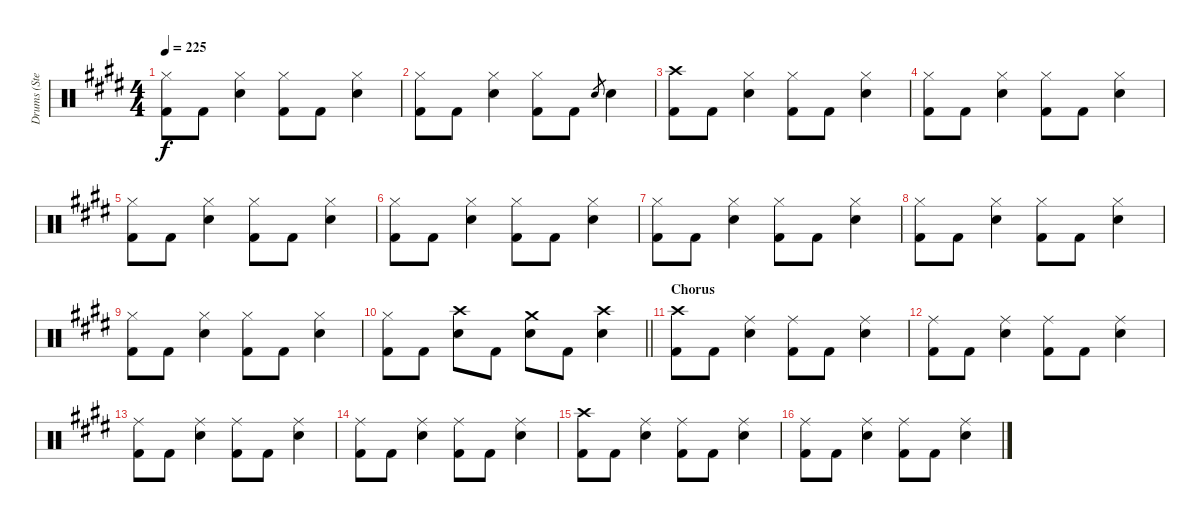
\track ("Drums (Steven)" "Drums (Ste") {instrument percussion}
\staff {score}
\articulation defaults
\ts (4 4)
\tempo 225
\clef neutral
\ks e
("Hi-Hat (closed)" "Kick (hit) 2").8{dy f} "Kick (hit) 2".8 ("Hi-Hat (closed)" "Snare (hit) 2").4 ("Hi-Hat (closed)" "Kick (hit) 2").8 "Kick (hit) 2".8 ("Hi-Hat (closed)" "Snare (hit) 2").4 |
("Hi-Hat (closed)" "Kick (hit) 2").8 "Kick (hit) 2".8 ("Hi-Hat (closed)" "Snare (hit) 2").4 ("Hi-Hat (closed)" "Kick (hit) 2").8 "Kick (hit) 2".8 "Snare (hit) 2".8{gr} "Snare (hit) 2".4 |
("Crash high (hit)" "Kick (hit) 2").8 "Kick (hit) 2".8 ("Hi-Hat (closed)" "Snare (hit) 2").4 ("Hi-Hat (closed)" "Kick (hit) 2").8 "Kick (hit) 2".8 ("Hi-Hat (closed)" "Snare (hit) 2").4 |
("Hi-Hat (closed)" "Kick (hit) 2").8 "Kick (hit) 2".8 ("Hi-Hat (closed)" "Snare (hit) 2").4 ("Hi-Hat (closed)" "Kick (hit) 2").8 "Kick (hit) 2".8 ("Hi-Hat (closed)" "Snare (hit) 2").4 |
("Hi-Hat (closed)" "Kick (hit) 2").8 "Kick (hit) 2".8 ("Hi-Hat (closed)" "Snare (hit) 2").4 ("Hi-Hat (closed)" "Kick (hit) 2").8 "Kick (hit) 2".8 ("Hi-Hat (closed)" "Snare (hit) 2").4 |
("Hi-Hat (closed)" "Kick (hit) 2").8 "Kick (hit) 2".8 ("Hi-Hat (closed)" "Snare (hit) 2").4 ("Hi-Hat (closed)" "Kick (hit) 2").8 "Kick (hit) 2".8 ("Hi-Hat (closed)" "Snare (hit) 2").4 |
("Hi-Hat (closed)" "Kick (hit) 2").8 "Kick (hit) 2".8 ("Hi-Hat (closed)" "Snare (hit) 2").4 ("Hi-Hat (closed)" "Kick (hit) 2").8 "Kick (hit) 2".8 ("Hi-Hat (closed)" "Snare (hit) 2").4 |
("Hi-Hat (closed)" "Kick (hit) 2").8 "Kick (hit) 2".8 ("Hi-Hat (closed)" "Snare (hit) 2").4 ("Hi-Hat (closed)" "Kick (hit) 2").8 "Kick (hit) 2".8 ("Hi-Hat (closed)" "Snare (hit) 2").4 |
("Hi-Hat (closed)" "Kick (hit) 2").8 "Kick (hit) 2".8 ("Hi-Hat (closed)" "Snare (hit) 2").4 ("Hi-Hat (closed)" "Kick (hit) 2").8 "Kick (hit) 2".8 ("Hi-Hat (closed)" "Snare (hit) 2").4 |
\barLineRight lightlight
("Hi-Hat (closed)" "Kick (hit) 2").8 "Kick (hit) 2".8 ("Crash high (hit)" "Snare (hit) 2").8 "Kick (hit) 2".8 ("Crash medium (hit)" "Snare (hit) 2").8 "Kick (hit) 2".8 ("Crash high (hit)" "Snare (hit) 2").4 |
\section ("" "Chorus")
("Crash high (hit)" "Kick (hit) 2").8 "Kick (hit) 2".8 ("Ride (middle)" "Snare (hit) 2").4 ("Ride (middle)" "Kick (hit) 2").8 "Kick (hit) 2".8 ("Ride (middle)" "Snare (hit) 2").4 |
("Ride (middle)" "Kick (hit) 2").8 "Kick (hit) 2".8 ("Ride (middle)" "Snare (hit) 2").4 ("Ride (middle)" "Kick (hit) 2").8 "Kick (hit) 2".8 ("Ride (middle)" "Snare (hit) 2").4 |
("Ride (middle)" "Kick (hit) 2").8 "Kick (hit) 2".8 ("Ride (middle)" "Snare (hit) 2").4 ("Ride (middle)" "Kick (hit) 2").8 "Kick (hit) 2".8 ("Ride (middle)" "Snare (hit) 2").4 |
("Ride (middle)" "Kick (hit) 2").8 "Kick (hit) 2".8 ("Ride (middle)" "Snare (hit) 2").4 ("Ride (middle)" "Kick (hit) 2").8 "Kick (hit) 2".8 ("Ride (middle)" "Snare (hit) 2").4 |
("Crash high (hit)" "Kick (hit) 2").8 "Kick (hit) 2".8 ("Ride (middle)" "Snare (hit) 2").4 ("Ride (middle)" "Kick (hit) 2").8 "Kick (hit) 2".8 ("Ride (middle)" "Snare (hit) 2").4 |
("Ride (middle)" "Kick (hit) 2").8 "Kick (hit) 2".8 ("Ride (middle)" "Snare (hit) 2").4 ("Ride (middle)" "Kick (hit) 2").8 "Kick (hit) 2".8 ("Ride (middle)" "Snare (hit) 2").4
